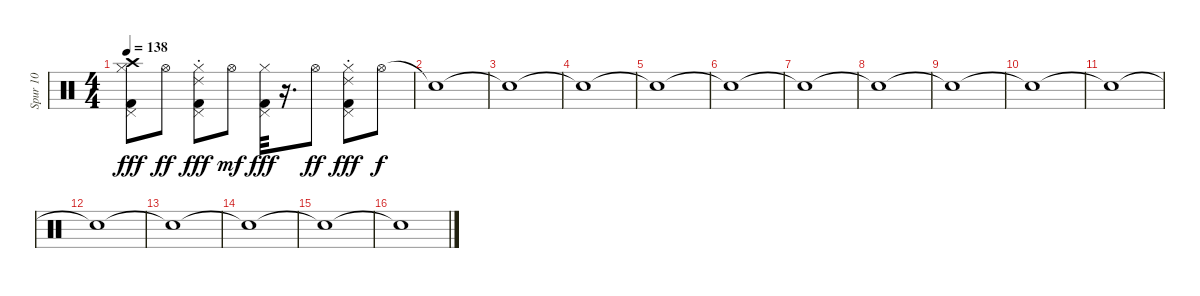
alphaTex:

\track ("Spur 10" "Spur 10") {instrument percussion}
\staff {score}
\articulation defaults
\ts (4 4)
\tempo 138
\clef neutral
\ks c
("Crash high (hit)" "Pedal Hi-Hat (hit)" "Kick (hit) 2" "Hi-Hat (closed)").8{dy fff} "Hi-Hat (open)".8{dy ff} ("Ride (choke) 2" "Pedal Hi-Hat (hit)" "Kick (hit) 2" "Hi-Hat (closed)").8{dy fff} "Hi-Hat (open)".8{dy mf} ("Pedal Hi-Hat (hit)" "Kick (hit) 2" "Hi-Hat (closed)").32{dy fff} r.16{d} "Hi-Hat (open)".8{dy ff} ("Ride (choke) 2" "Pedal Hi-Hat (hit)" "Kick (hit) 2" "Hi-Hat (closed)").8{dy fff} "Hi-Hat (open)".8{dy f} |
"Snare (hit)"{t}.1 |
"Snare (hit)"{t}.1 |
"Snare (hit)"{t}.1 |
"Snare (hit)"{t}.1 |
"Snare (hit)"{t}.1 |
"Snare (hit)"{t}.1 |
"Snare (hit)"{t}.1 |
"Snare (hit)"{t}.1 |
"Snare (hit)"{t}.1 |
"Snare (hit)"{t}.1 |
"Snare (hit)"{t}.1 |
"Snare (hit)"{t}.1 |
"Snare (hit)"{t}.1 |
"Snare (hit)"{t}.1 |
"Snare (hit)"{t}.1
